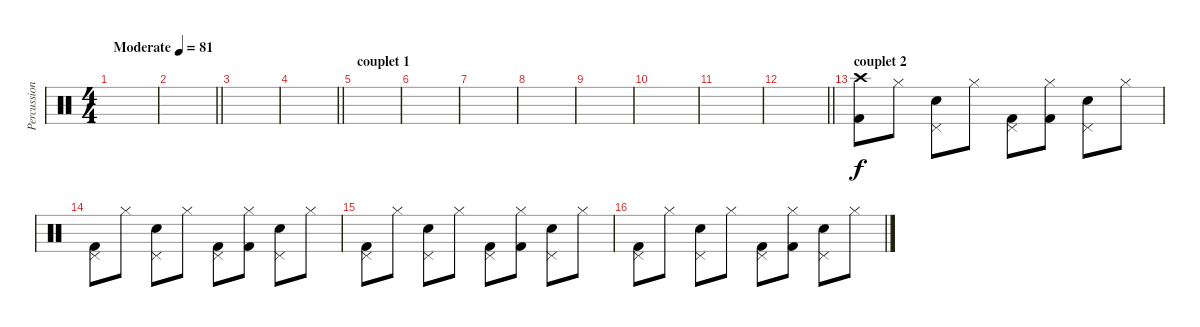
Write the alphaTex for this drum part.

\track ("Percussions" "Percussion") {instrument percussion bank 16}
\staff {score}
\articulation defaults
\ts (4 4)
\tempo (81 "Moderate")
\clef neutral
\ks c
|
\barLineRight lightlight
|
|
\barLineRight lightlight
|
\section ("" "couplet 1")
|
|
|
|
|
|
|
\barLineRight lightlight
|
\section ("" "couplet 2")
("Crash high (hit)" "Kick (hit) 2").8 "Hi-Hat (closed)".8 ("Pedal Hi-Hat (hit)" "Electric Snare (hit)").8 "Hi-Hat (closed)".8 ("Pedal Hi-Hat (hit)" "Kick (hit) 2").8 ("Hi-Hat (closed)" "Kick (hit) 2").8 ("Pedal Hi-Hat (hit)" "Electric Snare (hit)").8 "Hi-Hat (closed)".8 |
("Pedal Hi-Hat (hit)" "Kick (hit) 2").8 "Hi-Hat (closed)".8 ("Pedal Hi-Hat (hit)" "Electric Snare (hit)").8 "Hi-Hat (closed)".8 ("Pedal Hi-Hat (hit)" "Kick (hit) 2").8 ("Hi-Hat (closed)" "Kick (hit) 2").8 ("Pedal Hi-Hat (hit)" "Electric Snare (hit)").8 "Hi-Hat (closed)".8 |
("Pedal Hi-Hat (hit)" "Kick (hit) 2").8 "Hi-Hat (closed)".8 ("Pedal Hi-Hat (hit)" "Electric Snare (hit)").8 "Hi-Hat (closed)".8 ("Pedal Hi-Hat (hit)" "Kick (hit) 2").8 ("Hi-Hat (closed)" "Kick (hit) 2").8 ("Pedal Hi-Hat (hit)" "Electric Snare (hit)").8 "Hi-Hat (closed)".8 |
("Pedal Hi-Hat (hit)" "Kick (hit) 2").8 "Hi-Hat (closed)".8 ("Pedal Hi-Hat (hit)" "Electric Snare (hit)").8 "Hi-Hat (closed)".8 ("Pedal Hi-Hat (hit)" "Kick (hit) 2").8 ("Hi-Hat (closed)" "Kick (hit) 2").8 ("Pedal Hi-Hat (hit)" "Electric Snare (hit)").8 "Hi-Hat (closed)".8
